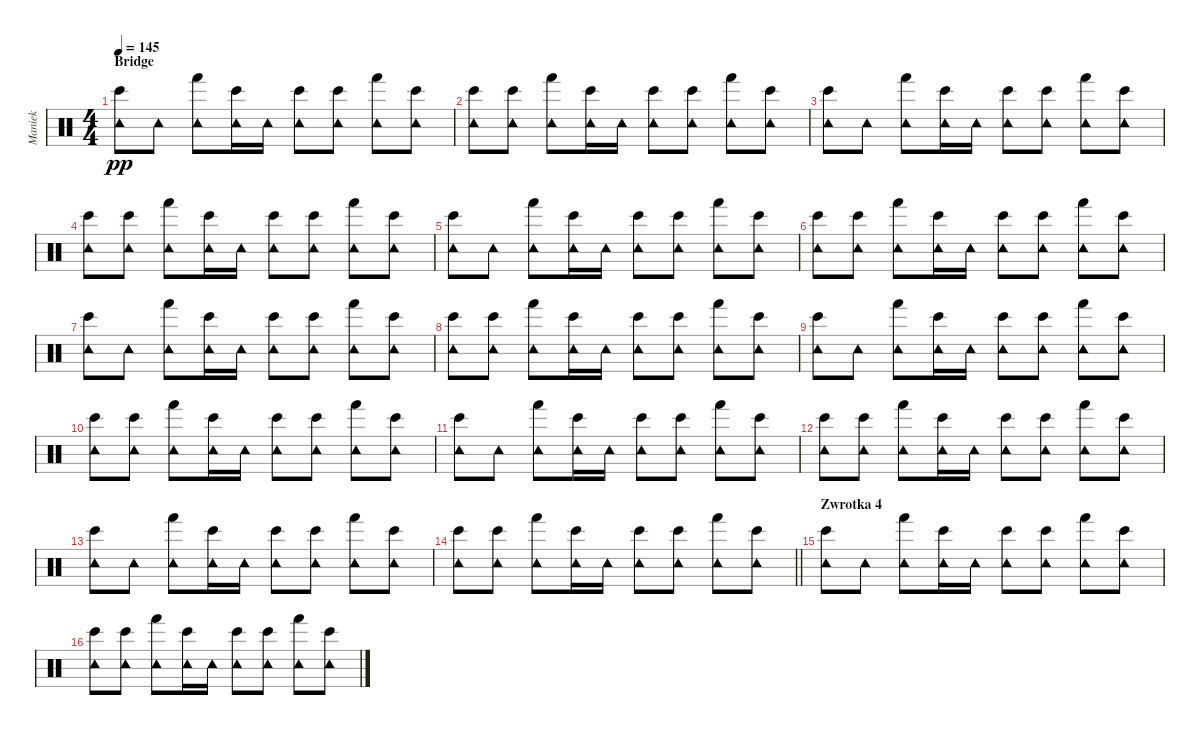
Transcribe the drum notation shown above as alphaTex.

\track ("Maniek" "Maniek") {instrument percussion}
\staff {score}
\articulation defaults
\ts (4 4)
\section ("" "Bridge")
\tempo 145
\clef neutral
\ks c
("Bongo High (hit)" "Tambourine (hit)").8{dy pp} "Tambourine (hit)".8 ("Hand (hit)" "Tambourine (hit)").8 ("Bongo High (hit)" "Tambourine (hit)").16 "Tambourine (hit)".16 ("Bongo High (hit)" "Tambourine (hit)").8 ("Bongo High (hit)" "Tambourine (hit)").8 ("Hand (hit)" "Tambourine (hit)").8 ("Bongo High (hit)" "Tambourine (hit)").8 |
("Bongo High (hit)" "Tambourine (hit)").8 ("Bongo High (hit)" "Tambourine (hit)").8 ("Hand (hit)" "Tambourine (hit)").8 ("Bongo High (hit)" "Tambourine (hit)").16 "Tambourine (hit)".16 ("Bongo High (hit)" "Tambourine (hit)").8 ("Bongo High (hit)" "Tambourine (hit)").8 ("Hand (hit)" "Tambourine (hit)").8 ("Bongo High (hit)" "Tambourine (hit)").8 |
("Bongo High (hit)" "Tambourine (hit)").8 "Tambourine (hit)".8 ("Hand (hit)" "Tambourine (hit)").8 ("Bongo High (hit)" "Tambourine (hit)").16 "Tambourine (hit)".16 ("Bongo High (hit)" "Tambourine (hit)").8 ("Bongo High (hit)" "Tambourine (hit)").8 ("Hand (hit)" "Tambourine (hit)").8 ("Bongo High (hit)" "Tambourine (hit)").8 |
("Bongo High (hit)" "Tambourine (hit)").8 ("Bongo High (hit)" "Tambourine (hit)").8 ("Hand (hit)" "Tambourine (hit)").8 ("Bongo High (hit)" "Tambourine (hit)").16 "Tambourine (hit)".16 ("Bongo High (hit)" "Tambourine (hit)").8 ("Bongo High (hit)" "Tambourine (hit)").8 ("Hand (hit)" "Tambourine (hit)").8 ("Bongo High (hit)" "Tambourine (hit)").8 |
("Bongo High (hit)" "Tambourine (hit)").8 "Tambourine (hit)".8 ("Hand (hit)" "Tambourine (hit)").8 ("Bongo High (hit)" "Tambourine (hit)").16 "Tambourine (hit)".16 ("Bongo High (hit)" "Tambourine (hit)").8 ("Bongo High (hit)" "Tambourine (hit)").8 ("Hand (hit)" "Tambourine (hit)").8 ("Bongo High (hit)" "Tambourine (hit)").8 |
("Bongo High (hit)" "Tambourine (hit)").8 ("Bongo High (hit)" "Tambourine (hit)").8 ("Hand (hit)" "Tambourine (hit)").8 ("Bongo High (hit)" "Tambourine (hit)").16 "Tambourine (hit)".16 ("Bongo High (hit)" "Tambourine (hit)").8 ("Bongo High (hit)" "Tambourine (hit)").8 ("Hand (hit)" "Tambourine (hit)").8 ("Bongo High (hit)" "Tambourine (hit)").8 |
("Bongo High (hit)" "Tambourine (hit)").8 "Tambourine (hit)".8 ("Hand (hit)" "Tambourine (hit)").8 ("Bongo High (hit)" "Tambourine (hit)").16 "Tambourine (hit)".16 ("Bongo High (hit)" "Tambourine (hit)").8 ("Bongo High (hit)" "Tambourine (hit)").8 ("Hand (hit)" "Tambourine (hit)").8 ("Bongo High (hit)" "Tambourine (hit)").8 |
("Bongo High (hit)" "Tambourine (hit)").8 ("Bongo High (hit)" "Tambourine (hit)").8 ("Hand (hit)" "Tambourine (hit)").8 ("Bongo High (hit)" "Tambourine (hit)").16 "Tambourine (hit)".16 ("Bongo High (hit)" "Tambourine (hit)").8 ("Bongo High (hit)" "Tambourine (hit)").8 ("Hand (hit)" "Tambourine (hit)").8 ("Bongo High (hit)" "Tambourine (hit)").8 |
("Bongo High (hit)" "Tambourine (hit)").8 "Tambourine (hit)".8 ("Hand (hit)" "Tambourine (hit)").8 ("Bongo High (hit)" "Tambourine (hit)").16 "Tambourine (hit)".16 ("Bongo High (hit)" "Tambourine (hit)").8 ("Bongo High (hit)" "Tambourine (hit)").8 ("Hand (hit)" "Tambourine (hit)").8 ("Bongo High (hit)" "Tambourine (hit)").8 |
("Bongo High (hit)" "Tambourine (hit)").8 ("Bongo High (hit)" "Tambourine (hit)").8 ("Hand (hit)" "Tambourine (hit)").8 ("Bongo High (hit)" "Tambourine (hit)").16 "Tambourine (hit)".16 ("Bongo High (hit)" "Tambourine (hit)").8 ("Bongo High (hit)" "Tambourine (hit)").8 ("Hand (hit)" "Tambourine (hit)").8 ("Bongo High (hit)" "Tambourine (hit)").8 |
("Bongo High (hit)" "Tambourine (hit)").8 "Tambourine (hit)".8 ("Hand (hit)" "Tambourine (hit)").8 ("Bongo High (hit)" "Tambourine (hit)").16 "Tambourine (hit)".16 ("Bongo High (hit)" "Tambourine (hit)").8 ("Bongo High (hit)" "Tambourine (hit)").8 ("Hand (hit)" "Tambourine (hit)").8 ("Bongo High (hit)" "Tambourine (hit)").8 |
("Bongo High (hit)" "Tambourine (hit)").8 ("Bongo High (hit)" "Tambourine (hit)").8 ("Hand (hit)" "Tambourine (hit)").8 ("Bongo High (hit)" "Tambourine (hit)").16 "Tambourine (hit)".16 ("Bongo High (hit)" "Tambourine (hit)").8 ("Bongo High (hit)" "Tambourine (hit)").8 ("Hand (hit)" "Tambourine (hit)").8 ("Bongo High (hit)" "Tambourine (hit)").8 |
("Bongo High (hit)" "Tambourine (hit)").8 "Tambourine (hit)".8 ("Hand (hit)" "Tambourine (hit)").8 ("Bongo High (hit)" "Tambourine (hit)").16 "Tambourine (hit)".16 ("Bongo High (hit)" "Tambourine (hit)").8 ("Bongo High (hit)" "Tambourine (hit)").8 ("Hand (hit)" "Tambourine (hit)").8 ("Bongo High (hit)" "Tambourine (hit)").8 |
\barLineRight lightlight
("Bongo High (hit)" "Tambourine (hit)").8 ("Bongo High (hit)" "Tambourine (hit)").8 ("Hand (hit)" "Tambourine (hit)").8 ("Bongo High (hit)" "Tambourine (hit)").16 "Tambourine (hit)".16 ("Bongo High (hit)" "Tambourine (hit)").8 ("Bongo High (hit)" "Tambourine (hit)").8 ("Hand (hit)" "Tambourine (hit)").8 ("Bongo High (hit)" "Tambourine (hit)").8 |
\section ("" "Zwrotka 4")
("Bongo High (hit)" "Tambourine (hit)").8 "Tambourine (hit)".8 ("Hand (hit)" "Tambourine (hit)").8 ("Bongo High (hit)" "Tambourine (hit)").16 "Tambourine (hit)".16 ("Bongo High (hit)" "Tambourine (hit)").8 ("Bongo High (hit)" "Tambourine (hit)").8 ("Hand (hit)" "Tambourine (hit)").8 ("Bongo High (hit)" "Tambourine (hit)").8 |
("Bongo High (hit)" "Tambourine (hit)").8 ("Bongo High (hit)" "Tambourine (hit)").8 ("Hand (hit)" "Tambourine (hit)").8 ("Bongo High (hit)" "Tambourine (hit)").16 "Tambourine (hit)".16 ("Bongo High (hit)" "Tambourine (hit)").8 ("Bongo High (hit)" "Tambourine (hit)").8 ("Hand (hit)" "Tambourine (hit)").8 ("Bongo High (hit)" "Tambourine (hit)").8
